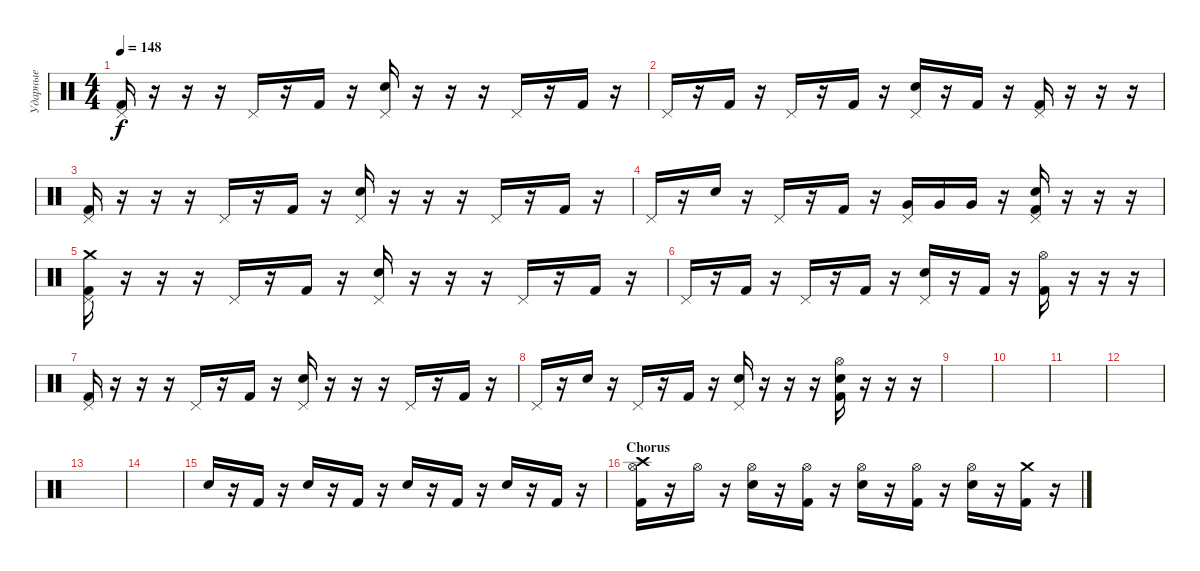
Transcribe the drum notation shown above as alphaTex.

\track ("Ударные" "Ударные") {instrument percussion}
\staff {score}
\articulation defaults
\ts (4 4)
\tempo 148
\clef neutral
\ks c
("Pedal Hi-Hat (hit)" "Kick (hit) 2").16{dy f} r.16 r.16 r.16 "Pedal Hi-Hat (hit)".16 r.16 "Kick (hit) 2".16 r.16 ("Pedal Hi-Hat (hit)" "Electric Snare (hit)").16 r.16 r.16 r.16 "Pedal Hi-Hat (hit)".16 r.16 "Kick (hit) 2".16 r.16 |
"Pedal Hi-Hat (hit)".16 r.16 "Kick (hit) 2".16 r.16 "Pedal Hi-Hat (hit)".16 r.16 "Kick (hit) 2".16 r.16 ("Pedal Hi-Hat (hit)" "Electric Snare (hit)").16 r.16 "Kick (hit) 2".16 r.16 ("Pedal Hi-Hat (hit)" "Kick (hit) 2").16 r.16 r.16 r.16 |
("Pedal Hi-Hat (hit)" "Kick (hit) 2").16 r.16 r.16 r.16 "Pedal Hi-Hat (hit)".16 r.16 "Kick (hit) 2".16 r.16 ("Pedal Hi-Hat (hit)" "Electric Snare (hit)").16 r.16 r.16 r.16 "Pedal Hi-Hat (hit)".16 r.16 "Kick (hit) 2".16 r.16 |
"Pedal Hi-Hat (hit)".16 r.16 "Electric Snare (hit)".16 r.16 "Pedal Hi-Hat (hit)".16 r.16 "Kick (hit) 2".16 r.16 ("Pedal Hi-Hat (hit)" "Very Low Tom (hit)").16 "Very Low Tom (hit)".16 "Very Low Tom (hit)".16 r.16 ("Pedal Hi-Hat (hit)" "Electric Snare (hit)" "Kick (hit) 2").16 r.16 r.16 r.16 |
("Crash medium (hit)" "Pedal Hi-Hat (hit)" "Kick (hit) 2").16 r.16 r.16 r.16 "Pedal Hi-Hat (hit)".16 r.16 "Kick (hit) 2".16 r.16 ("Pedal Hi-Hat (hit)" "Electric Snare (hit)").16 r.16 r.16 r.16 "Pedal Hi-Hat (hit)".16 r.16 "Kick (hit) 2".16 r.16 |
"Pedal Hi-Hat (hit)".16 r.16 "Kick (hit) 2".16 r.16 "Pedal Hi-Hat (hit)".16 r.16 "Kick (hit) 2".16 r.16 ("Pedal Hi-Hat (hit)" "Electric Snare (hit)").16 r.16 "Kick (hit) 2".16 r.16 ("Hi-Hat (open)" "Kick (hit) 2").16 r.16 r.16 r.16 |
("Pedal Hi-Hat (hit)" "Kick (hit) 2").16 r.16 r.16 r.16 "Pedal Hi-Hat (hit)".16 r.16 "Kick (hit) 2".16 r.16 ("Pedal Hi-Hat (hit)" "Electric Snare (hit)").16 r.16 r.16 r.16 "Pedal Hi-Hat (hit)".16 r.16 "Kick (hit) 2".16 r.16 |
"Pedal Hi-Hat (hit)".16 r.16 "Electric Snare (hit)".16 r.16 "Pedal Hi-Hat (hit)".16 r.16 "Kick (hit) 2".16 r.16 ("Pedal Hi-Hat (hit)" "Electric Snare (hit)").16 r.16 r.16 r.16 ("Hi-Hat (open)" "Electric Snare (hit)" "Kick (hit) 2").16 r.16 r.16 r.16 |
|
|
|
|
|
|
"Electric Snare (hit)".16 r.16 "Kick (hit) 2".16 r.16 "Electric Snare (hit)".16 r.16 "Kick (hit) 2".16 r.16 "Electric Snare (hit)".16 r.16 "Kick (hit) 2".16 r.16 "Electric Snare (hit)".16 r.16 "Kick (hit) 2".16 r.16 |
\section ("" "Chorus")
("Crash high (hit)" "Hi-Hat (open)" "Kick (hit) 2").16 r.16 "Hi-Hat (open)".16 r.16 ("Hi-Hat (open)" "Electric Snare (hit)").16 r.16 ("Hi-Hat (open)" "Kick (hit) 2").16 r.16 ("Hi-Hat (open)" "Electric Snare (hit)").16 r.16 ("Hi-Hat (open)" "Kick (hit) 2").16 r.16 ("Hi-Hat (open)" "Electric Snare (hit)").16 r.16 ("Crash medium (hit)" "Kick (hit) 2").16 r.16
